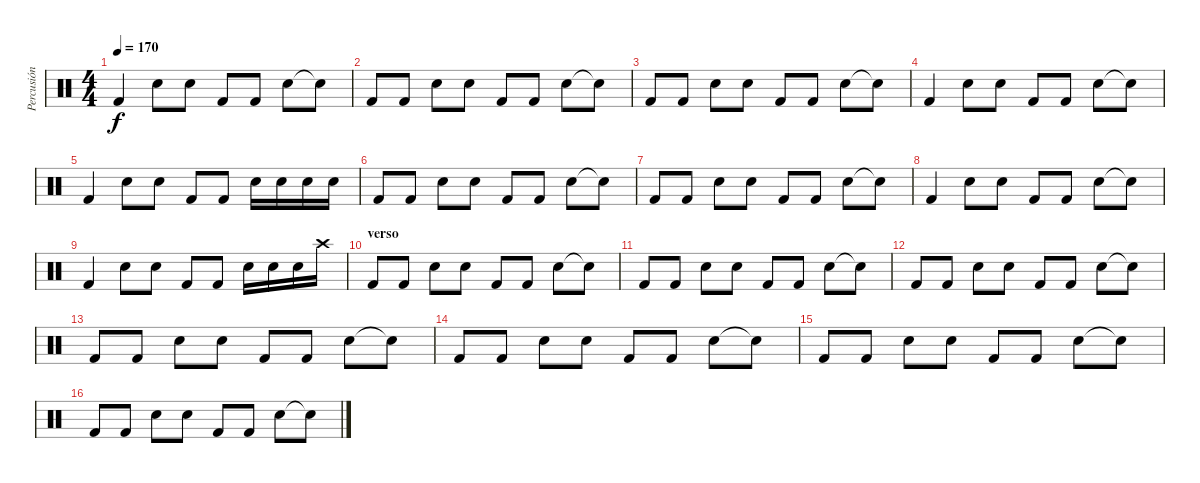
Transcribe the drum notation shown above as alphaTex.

\track ("Percusión" "Percusión") {instrument percussion}
\staff {score}
\articulation defaults
\ts (4 4)
\tempo 170
\clef neutral
\ks c "Kick (hit) 2".4{dy f} "Electric Snare (hit)".8 "Electric Snare (hit)".8 "Kick (hit) 2".8 "Kick (hit) 2".8 "Electric Snare (hit)".8 "Electric Snare (hit)"{t}.8
|
"Kick (hit) 2".8 "Kick (hit) 2".8 "Electric Snare (hit)".8 "Electric Snare (hit)".8 "Kick (hit) 2".8 "Kick (hit) 2".8 "Electric Snare (hit)".8 "Snare (hit)"{t}.8 |
"Kick (hit) 2".8 "Kick (hit) 2".8 "Electric Snare (hit)".8 "Electric Snare (hit)".8 "Kick (hit) 2".8 "Kick (hit) 2".8 "Electric Snare (hit)".8 "Snare (hit)"{t}.8 |
"Kick (hit) 2".4 "Electric Snare (hit)".8 "Electric Snare (hit)".8 "Kick (hit) 2".8 "Kick (hit) 2".8 "Electric Snare (hit)".8 "Electric Snare (hit)"{t}.8 |
"Kick (hit) 2".4 "Electric Snare (hit)".8 "Electric Snare (hit)".8 "Kick (hit) 2".8 "Kick (hit) 2".8 "Electric Snare (hit)".16 "Electric Snare (hit)".16 "Electric Snare (hit)".16 "Electric Snare (hit)".16 |
"Kick (hit) 2".8 "Kick (hit) 2".8 "Electric Snare (hit)".8 "Electric Snare (hit)".8 "Kick (hit) 2".8 "Kick (hit) 2".8 "Electric Snare (hit)".8 "Snare (hit)"{t}.8 |
"Kick (hit) 2".8 "Kick (hit) 2".8 "Electric Snare (hit)".8 "Electric Snare (hit)".8 "Kick (hit) 2".8 "Kick (hit) 2".8 "Electric Snare (hit)".8 "Snare (hit)"{t}.8 |
"Kick (hit) 2".4 "Electric Snare (hit)".8 "Electric Snare (hit)".8 "Kick (hit) 2".8 "Kick (hit) 2".8 "Electric Snare (hit)".8 "Electric Snare (hit)"{t}.8 |
"Kick (hit) 2".4 "Electric Snare (hit)".8 "Electric Snare (hit)".8 "Kick (hit) 2".8 "Kick (hit) 2".8 "Electric Snare (hit)".16 "Electric Snare (hit)".16 "Electric Snare (hit)".16 "Crash high (hit)".16 |
\section ("" "verso")
"Kick (hit) 2".8 "Kick (hit) 2".8 "Electric Snare (hit)".8 "Electric Snare (hit)".8 "Kick (hit) 2".8 "Kick (hit) 2".8 "Electric Snare (hit)".8 "Snare (hit)"{t}.8 |
"Kick (hit) 2".8 "Kick (hit) 2".8 "Electric Snare (hit)".8 "Electric Snare (hit)".8 "Kick (hit) 2".8 "Kick (hit) 2".8 "Electric Snare (hit)".8 "Snare (hit)"{t}.8 |
"Kick (hit) 2".8 "Kick (hit) 2".8 "Electric Snare (hit)".8 "Electric Snare (hit)".8 "Kick (hit) 2".8 "Kick (hit) 2".8 "Electric Snare (hit)".8 "Snare (hit)"{t}.8 |
"Kick (hit) 2".8 "Kick (hit) 2".8 "Electric Snare (hit)".8 "Electric Snare (hit)".8 "Kick (hit) 2".8 "Kick (hit) 2".8 "Electric Snare (hit)".8 "Snare (hit)"{t}.8 |
"Kick (hit) 2".8 "Kick (hit) 2".8 "Electric Snare (hit)".8 "Electric Snare (hit)".8 "Kick (hit) 2".8 "Kick (hit) 2".8 "Electric Snare (hit)".8 "Snare (hit)"{t}.8 |
"Kick (hit) 2".8 "Kick (hit) 2".8 "Electric Snare (hit)".8 "Electric Snare (hit)".8 "Kick (hit) 2".8 "Kick (hit) 2".8 "Electric Snare (hit)".8 "Snare (hit)"{t}.8 |
"Kick (hit) 2".8 "Kick (hit) 2".8 "Electric Snare (hit)".8 "Electric Snare (hit)".8 "Kick (hit) 2".8 "Kick (hit) 2".8 "Electric Snare (hit)".8 "Snare (hit)"{t}.8
